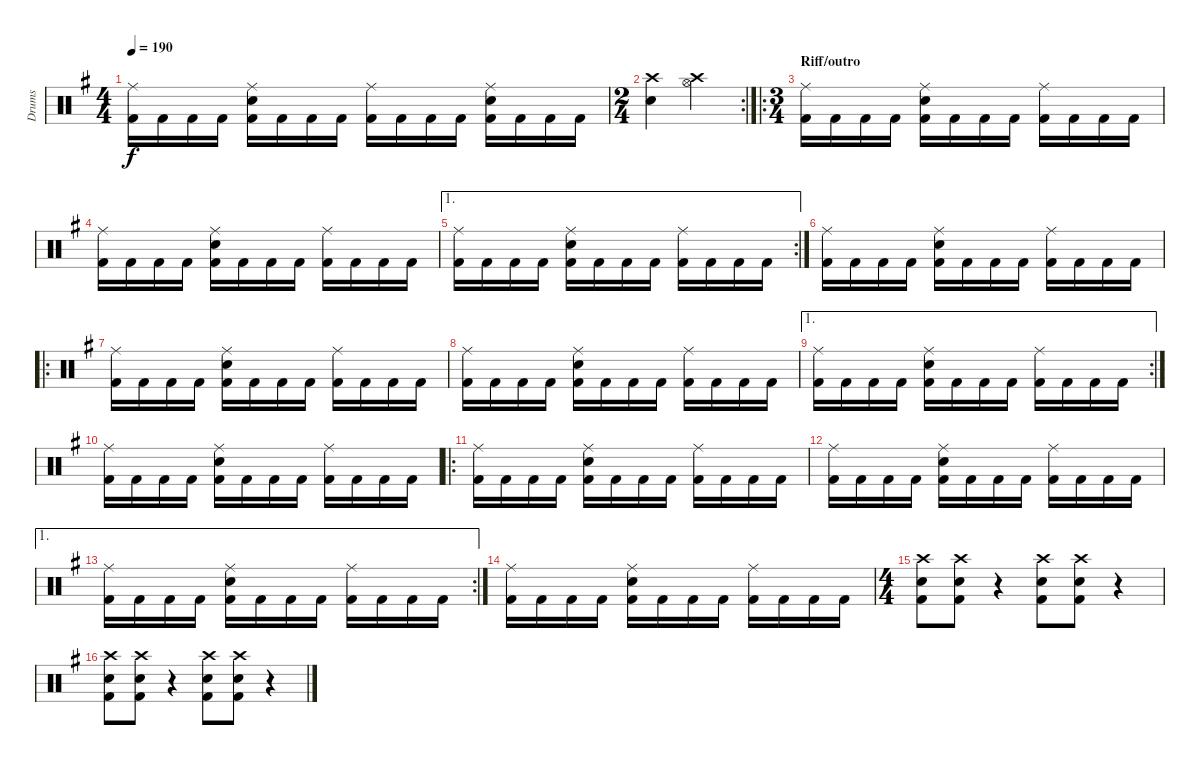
\track ("Drums" "Drums") {instrument percussion}
\staff {score}
\articulation defaults
\ts (4 4)
\tempo 190
\clef neutral
\ks eminor
("Ride (middle)" "Kick (hit) 2").16{dy f} "Kick (hit) 2".16 "Kick (hit) 2".16 "Kick (hit) 2".16 ("Ride (middle)" "Electric Snare (hit)" "Kick (hit) 2").16 "Kick (hit) 2".16 "Kick (hit) 2".16 "Kick (hit) 2".16 ("Ride (middle)" "Kick (hit) 2").16 "Kick (hit) 2".16 "Kick (hit) 2".16 "Kick (hit) 2".16 ("Ride (middle)" "Electric Snare (hit)" "Kick (hit) 2").16 "Kick (hit) 2".16 "Kick (hit) 2".16 "Kick (hit) 2".16 |
\rc 2
\ts (2 4)
("Crash high (hit)" "Electric Snare (hit)").4 ("Crash high (hit)" "Hi-Hat (open)").4 |
\ro
\ts (3 4)
\section ("" "Riff/outro")
("Ride (middle)" "Kick (hit) 2").16 "Kick (hit) 2".16 "Kick (hit) 2".16 "Kick (hit) 2".16 ("Ride (middle)" "Electric Snare (hit)" "Kick (hit) 2").16 "Kick (hit) 2".16 "Kick (hit) 2".16 "Kick (hit) 2".16 ("Ride (middle)" "Kick (hit) 2").16 "Kick (hit) 2".16 "Kick (hit) 2".16 "Kick (hit) 2".16 |
("Ride (middle)" "Kick (hit) 2").16 "Kick (hit) 2".16 "Kick (hit) 2".16 "Kick (hit) 2".16 ("Ride (middle)" "Electric Snare (hit)" "Kick (hit) 2").16 "Kick (hit) 2".16 "Kick (hit) 2".16 "Kick (hit) 2".16 ("Ride (middle)" "Kick (hit) 2").16 "Kick (hit) 2".16 "Kick (hit) 2".16 "Kick (hit) 2".16 |
\ae 1
\rc 2
("Ride (middle)" "Kick (hit) 2").16 "Kick (hit) 2".16 "Kick (hit) 2".16 "Kick (hit) 2".16 ("Ride (middle)" "Electric Snare (hit)" "Kick (hit) 2").16 "Kick (hit) 2".16 "Kick (hit) 2".16 "Kick (hit) 2".16 ("Ride (middle)" "Kick (hit) 2").16 "Kick (hit) 2".16 "Kick (hit) 2".16 "Kick (hit) 2".16 |
("Ride (middle)" "Kick (hit) 2").16 "Kick (hit) 2".16 "Kick (hit) 2".16 "Kick (hit) 2".16 ("Ride (middle)" "Electric Snare (hit)" "Kick (hit) 2").16 "Kick (hit) 2".16 "Kick (hit) 2".16 "Kick (hit) 2".16 ("Ride (middle)" "Kick (hit) 2").16 "Kick (hit) 2".16 "Kick (hit) 2".16 "Kick (hit) 2".16 |
\ro
("Ride (middle)" "Kick (hit) 2").16 "Kick (hit) 2".16 "Kick (hit) 2".16 "Kick (hit) 2".16 ("Ride (middle)" "Electric Snare (hit)" "Kick (hit) 2").16 "Kick (hit) 2".16 "Kick (hit) 2".16 "Kick (hit) 2".16 ("Ride (middle)" "Kick (hit) 2").16 "Kick (hit) 2".16 "Kick (hit) 2".16 "Kick (hit) 2".16 |
("Ride (middle)" "Kick (hit) 2").16 "Kick (hit) 2".16 "Kick (hit) 2".16 "Kick (hit) 2".16 ("Ride (middle)" "Electric Snare (hit)" "Kick (hit) 2").16 "Kick (hit) 2".16 "Kick (hit) 2".16 "Kick (hit) 2".16 ("Ride (middle)" "Kick (hit) 2").16 "Kick (hit) 2".16 "Kick (hit) 2".16 "Kick (hit) 2".16 |
\ae 1
\rc 2
("Ride (middle)" "Kick (hit) 2").16 "Kick (hit) 2".16 "Kick (hit) 2".16 "Kick (hit) 2".16 ("Ride (middle)" "Electric Snare (hit)" "Kick (hit) 2").16 "Kick (hit) 2".16 "Kick (hit) 2".16 "Kick (hit) 2".16 ("Ride (middle)" "Kick (hit) 2").16 "Kick (hit) 2".16 "Kick (hit) 2".16 "Kick (hit) 2".16 |
("Ride (middle)" "Kick (hit) 2").16 "Kick (hit) 2".16 "Kick (hit) 2".16 "Kick (hit) 2".16 ("Ride (middle)" "Electric Snare (hit)" "Kick (hit) 2").16 "Kick (hit) 2".16 "Kick (hit) 2".16 "Kick (hit) 2".16 ("Ride (middle)" "Kick (hit) 2").16 "Kick (hit) 2".16 "Kick (hit) 2".16 "Kick (hit) 2".16 |
\ro
("Ride (middle)" "Kick (hit) 2").16 "Kick (hit) 2".16 "Kick (hit) 2".16 "Kick (hit) 2".16 ("Ride (middle)" "Electric Snare (hit)" "Kick (hit) 2").16 "Kick (hit) 2".16 "Kick (hit) 2".16 "Kick (hit) 2".16 ("Ride (middle)" "Kick (hit) 2").16 "Kick (hit) 2".16 "Kick (hit) 2".16 "Kick (hit) 2".16 |
("Ride (middle)" "Kick (hit) 2").16 "Kick (hit) 2".16 "Kick (hit) 2".16 "Kick (hit) 2".16 ("Ride (middle)" "Electric Snare (hit)" "Kick (hit) 2").16 "Kick (hit) 2".16 "Kick (hit) 2".16 "Kick (hit) 2".16 ("Ride (middle)" "Kick (hit) 2").16 "Kick (hit) 2".16 "Kick (hit) 2".16 "Kick (hit) 2".16 |
\ae 1
\rc 2
("Ride (middle)" "Kick (hit) 2").16 "Kick (hit) 2".16 "Kick (hit) 2".16 "Kick (hit) 2".16 ("Ride (middle)" "Electric Snare (hit)" "Kick (hit) 2").16 "Kick (hit) 2".16 "Kick (hit) 2".16 "Kick (hit) 2".16 ("Ride (middle)" "Kick (hit) 2").16 "Kick (hit) 2".16 "Kick (hit) 2".16 "Kick (hit) 2".16 |
("Ride (middle)" "Kick (hit) 2").16 "Kick (hit) 2".16 "Kick (hit) 2".16 "Kick (hit) 2".16 ("Ride (middle)" "Electric Snare (hit)" "Kick (hit) 2").16 "Kick (hit) 2".16 "Kick (hit) 2".16 "Kick (hit) 2".16 ("Ride (middle)" "Kick (hit) 2").16 "Kick (hit) 2".16 "Kick (hit) 2".16 "Kick (hit) 2".16 |
\ts (4 4)
("Crash high (hit)" "Electric Snare (hit)" "Kick (hit) 2").8 ("Crash high (hit)" "Electric Snare (hit)" "Kick (hit) 2").8 r.4 ("Crash high (hit)" "Electric Snare (hit)" "Kick (hit) 2").8 ("Crash high (hit)" "Electric Snare (hit)" "Kick (hit) 2").8 r.4 |
("Crash high (hit)" "Electric Snare (hit)" "Kick (hit) 2").8 ("Crash high (hit)" "Electric Snare (hit)" "Kick (hit) 2").8 r.4 ("Crash high (hit)" "Electric Snare (hit)" "Kick (hit) 2").8 ("Crash high (hit)" "Electric Snare (hit)" "Kick (hit) 2").8 r.4
